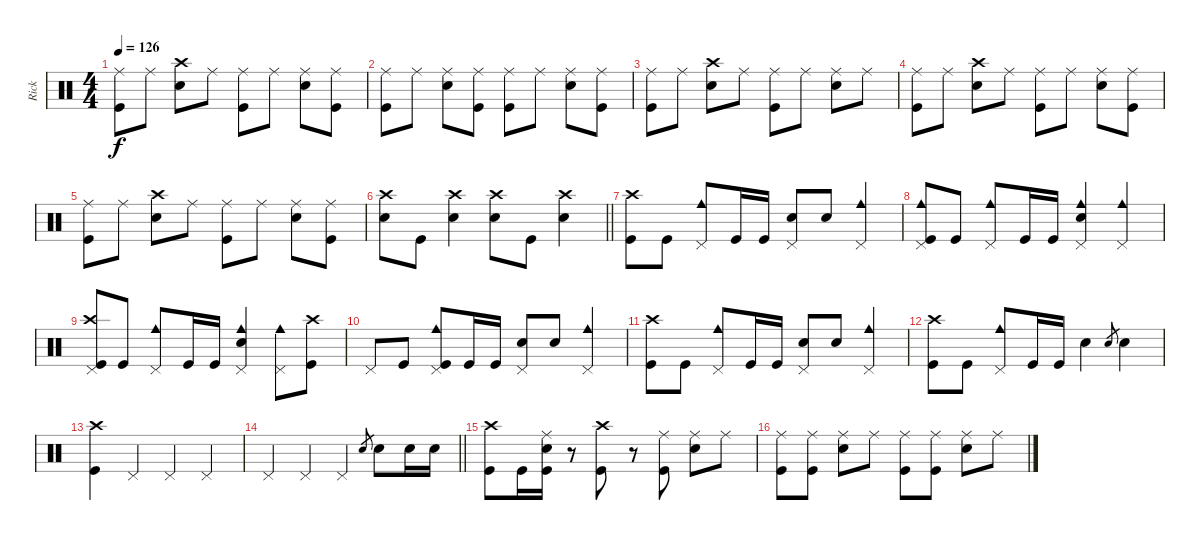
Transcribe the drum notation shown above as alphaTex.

\track ("Rick" "Rick") {instrument percussion}
\staff {score}
\articulation defaults
\ts (4 4)
\tempo 126
\clef neutral
\ks aminor
("Ride (middle)" "Kick (hit)").8{dy f} "Ride (middle)".8 ("Crash high (hit)" "Snare (hit) 2").8 "Ride (middle)".8 ("Ride (middle)" "Kick (hit)").8 "Ride (middle)".8 ("Ride (middle)" "Snare (hit) 2").8 ("Ride (middle)" "Kick (hit)").8 |
("Ride (middle)" "Kick (hit)").8 "Ride (middle)".8 ("Ride (middle)" "Snare (hit) 2").8 ("Ride (middle)" "Kick (hit)").8 ("Ride (middle)" "Kick (hit)").8 "Ride (middle)".8 ("Ride (middle)" "Snare (hit) 2").8 ("Ride (middle)" "Kick (hit)").8 |
("Ride (middle)" "Kick (hit)").8 "Ride (middle)".8 ("Crash high (hit)" "Snare (hit) 2").8 "Ride (middle)".8 ("Ride (middle)" "Kick (hit)").8 "Ride (middle)".8 ("Ride (middle)" "Snare (hit) 2").8 "Ride (middle)".8 |
("Ride (middle)" "Kick (hit)").8 "Ride (middle)".8 ("Crash high (hit)" "Snare (hit) 2").8 "Ride (middle)".8 ("Ride (middle)" "Kick (hit)").8 "Ride (middle)".8 ("Ride (middle)" "Snare (hit) 2").8 ("Ride (middle)" "Kick (hit)").8 |
("Ride (middle)" "Kick (hit)").8 "Ride (middle)".8 ("Crash high (hit)" "Snare (hit) 2").8 "Ride (middle)".8 ("Ride (middle)" "Kick (hit)").8 "Ride (middle)".8 ("Ride (middle)" "Snare (hit) 2").8 ("Ride (middle)" "Kick (hit)").8 |
\barLineRight lightlight
("Crash high (hit)" "Snare (hit) 2").8 "Kick (hit)".8 ("Crash high (hit)" "Snare (hit) 2").4 ("Crash high (hit)" "Snare (hit) 2").8 "Kick (hit)".8 ("Crash high (hit)" "Snare (hit) 2").4 |
("Crash high (hit)" "Kick (hit)").8 "Kick (hit)".8 ("Cowbell medium (hit)" "Pedal Hi-Hat (hit)").8 "Kick (hit)".16 "Kick (hit)".16 ("Snare (hit) 2" "Pedal Hi-Hat (hit)").8 "Snare (hit) 2".8 ("Cowbell medium (hit)" "Pedal Hi-Hat (hit)").4 |
("Cowbell medium (hit)" "Pedal Hi-Hat (hit)" "Kick (hit)").8 "Kick (hit)".8 ("Cowbell medium (hit)" "Pedal Hi-Hat (hit)").8 "Kick (hit)".16 "Kick (hit)".16 ("Cowbell medium (hit)" "Snare (hit) 2" "Pedal Hi-Hat (hit)").4 ("Cowbell medium (hit)" "Pedal Hi-Hat (hit)").4 |
("Crash high (hit)" "Pedal Hi-Hat (hit)" "Kick (hit)").8 "Kick (hit)".8 ("Cowbell medium (hit)" "Pedal Hi-Hat (hit)").8 "Kick (hit)".16 "Kick (hit)".16 ("Cowbell medium (hit)" "Snare (hit) 2" "Pedal Hi-Hat (hit)").4 ("Cowbell medium (hit)" "Pedal Hi-Hat (hit)").8 ("Crash high (hit)" "Kick (hit)").8 |
"Pedal Hi-Hat (hit)".8 "Kick (hit)".8 ("Cowbell medium (hit)" "Pedal Hi-Hat (hit)" "Kick (hit)").8 "Kick (hit)".16 "Kick (hit)".16 ("Snare (hit) 2" "Pedal Hi-Hat (hit)").8 "Snare (hit) 2".8 ("Cowbell medium (hit)" "Pedal Hi-Hat (hit)").4 |
("Crash high (hit)" "Kick (hit)").8 "Kick (hit)".8 ("Cowbell medium (hit)" "Pedal Hi-Hat (hit)").8 "Kick (hit)".16 "Kick (hit)".16 ("Snare (hit) 2" "Pedal Hi-Hat (hit)").8 "Snare (hit) 2".8 ("Cowbell medium (hit)" "Pedal Hi-Hat (hit)").4 |
("Crash high (hit)" "Kick (hit)").8 "Kick (hit)".8 ("Cowbell medium (hit)" "Pedal Hi-Hat (hit)").8 "Kick (hit)".16 "Kick (hit)".16 "Snare (hit) 2".4 "Snare (hit) 2".8{gr} "Snare (hit) 2".4 |
("Crash high (hit)" "Kick (hit)").4 "Pedal Hi-Hat (hit)".4 "Pedal Hi-Hat (hit)".4 "Pedal Hi-Hat (hit)".4 |
\barLineRight lightlight "Pedal Hi-Hat (hit)".4 "Pedal Hi-Hat (hit)".4 "Pedal Hi-Hat (hit)".4 "Snare (hit) 2".8{gr} "Snare (hit) 2".8 "Snare (hit) 2".16 "Snare (hit) 2".16
|
("Crash high (hit)" "Kick (hit)").8 "Kick (hit)".16 ("Ride (middle)" "Snare (hit) 2" "Kick (hit)").16 r.8 ("Crash high (hit)" "Kick (hit)").8 r.8 ("Ride (middle)" "Kick (hit)").8 ("Ride (middle)" "Snare (hit) 2").8 "Ride (middle)".8 |
("Ride (middle)" "Kick (hit)").8 ("Ride (middle)" "Kick (hit)").8 ("Ride (middle)" "Snare (hit) 2").8 "Ride (middle)".8 ("Ride (middle)" "Kick (hit)").8 ("Ride (middle)" "Kick (hit)").8 ("Ride (middle)" "Snare (hit) 2").8 "Ride (middle)".8
